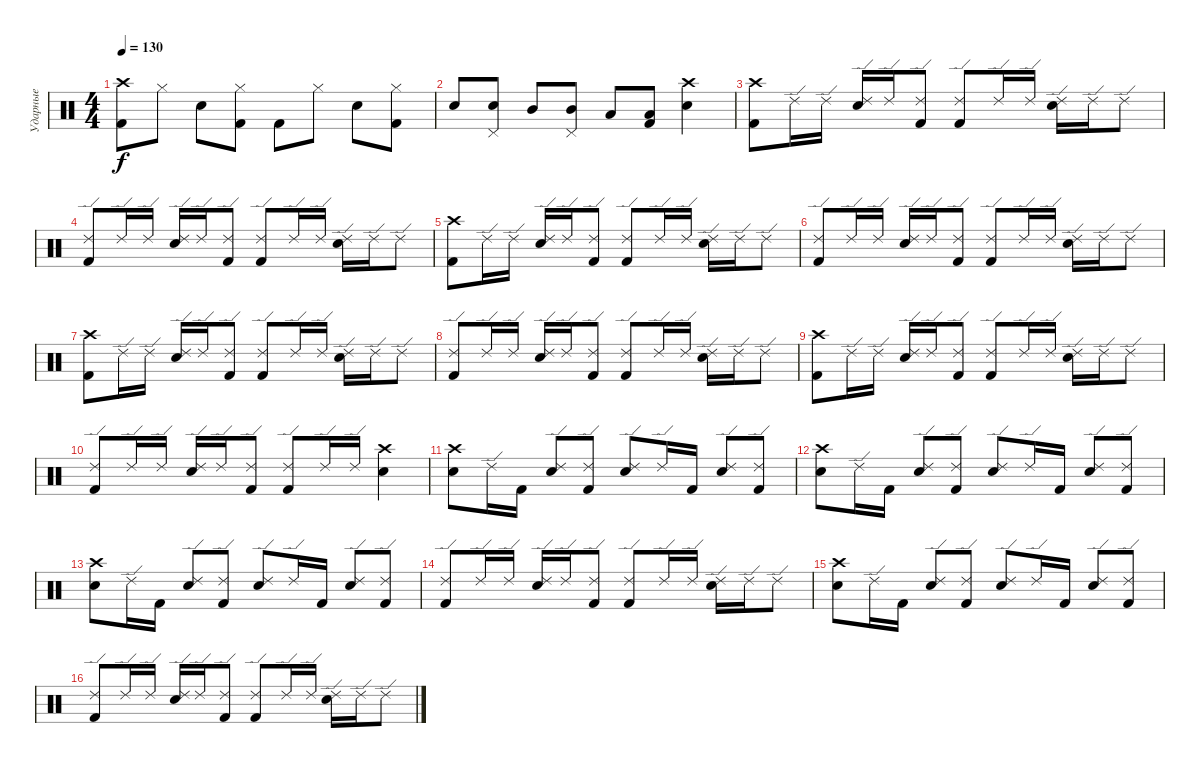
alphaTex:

\track ("Ударные" "Ударные") {instrument percussion}
\staff {score}
\articulation defaults
\ts (4 4)
\tempo 130
\clef neutral
\ks c
("Kick (hit) 2" "Crash high (hit)").8{dy f} "Hi-Hat (closed)".8 "Electric Snare (hit)".8 ("Kick (hit) 2" "Hi-Hat (closed)").8 "Kick (hit) 2".8 "Hi-Hat (closed)".8 "Electric Snare (hit)".8 ("Kick (hit) 2" "Hi-Hat (closed)").8 |
"Electric Snare (hit)".8 ("Electric Snare (hit)" "Pedal Hi-Hat (hit)").8 "Mid Tom (hit)".8 ("Mid Tom (hit)" "Pedal Hi-Hat (hit)").8 "Low Tom (hit)".8 ("Low Tom (hit)" "Kick (hit) 2").8 ("Electric Snare (hit)" "Crash high (hit)").4 |
("Kick (hit) 2" "Crash high (hit)").8 "Ride (edge) 2".16 "Ride (edge) 2".16 ("Electric Snare (hit)" "Ride (edge) 2").16 "Ride (edge) 2".16 ("Kick (hit) 2" "Ride (edge) 2").8 ("Kick (hit) 2" "Ride (edge) 2").8 "Ride (edge) 2".16 "Ride (edge) 2".16 ("Electric Snare (hit)" "Ride (edge) 2").16 "Ride (edge) 2".16 "Ride (edge) 2".8 |
("Kick (hit) 2" "Ride (edge) 2").8 "Ride (edge) 2".16 "Ride (edge) 2".16 ("Electric Snare (hit)" "Ride (edge) 2").16 "Ride (edge) 2".16 ("Kick (hit) 2" "Ride (edge) 2").8 ("Kick (hit) 2" "Ride (edge) 2").8 "Ride (edge) 2".16 "Ride (edge) 2".16 ("Electric Snare (hit)" "Ride (edge) 2").16 "Ride (edge) 2".16 "Ride (edge) 2".8 |
("Kick (hit) 2" "Crash high (hit)").8 "Ride (edge) 2".16 "Ride (edge) 2".16 ("Electric Snare (hit)" "Ride (edge) 2").16 "Ride (edge) 2".16 ("Kick (hit) 2" "Ride (edge) 2").8 ("Kick (hit) 2" "Ride (edge) 2").8 "Ride (edge) 2".16 "Ride (edge) 2".16 ("Electric Snare (hit)" "Ride (edge) 2").16 "Ride (edge) 2".16 "Ride (edge) 2".8 |
("Kick (hit) 2" "Ride (edge) 2").8 "Ride (edge) 2".16 "Ride (edge) 2".16 ("Electric Snare (hit)" "Ride (edge) 2").16 "Ride (edge) 2".16 ("Kick (hit) 2" "Ride (edge) 2").8 ("Kick (hit) 2" "Ride (edge) 2").8 "Ride (edge) 2".16 "Ride (edge) 2".16 ("Electric Snare (hit)" "Ride (edge) 2").16 "Ride (edge) 2".16 "Ride (edge) 2".8 |
("Kick (hit) 2" "Crash high (hit)").8 "Ride (edge) 2".16 "Ride (edge) 2".16 ("Electric Snare (hit)" "Ride (edge) 2").16 "Ride (edge) 2".16 ("Kick (hit) 2" "Ride (edge) 2").8 ("Kick (hit) 2" "Ride (edge) 2").8 "Ride (edge) 2".16 "Ride (edge) 2".16 ("Electric Snare (hit)" "Ride (edge) 2").16 "Ride (edge) 2".16 "Ride (edge) 2".8 |
("Kick (hit) 2" "Ride (edge) 2").8 "Ride (edge) 2".16 "Ride (edge) 2".16 ("Electric Snare (hit)" "Ride (edge) 2").16 "Ride (edge) 2".16 ("Kick (hit) 2" "Ride (edge) 2").8 ("Kick (hit) 2" "Ride (edge) 2").8 "Ride (edge) 2".16 "Ride (edge) 2".16 ("Electric Snare (hit)" "Ride (edge) 2").16 "Ride (edge) 2".16 "Ride (edge) 2".8 |
("Kick (hit) 2" "Crash high (hit)").8 "Ride (edge) 2".16 "Ride (edge) 2".16 ("Electric Snare (hit)" "Ride (edge) 2").16 "Ride (edge) 2".16 ("Kick (hit) 2" "Ride (edge) 2").8 ("Kick (hit) 2" "Ride (edge) 2").8 "Ride (edge) 2".16 "Ride (edge) 2".16 ("Electric Snare (hit)" "Ride (edge) 2").16 "Ride (edge) 2".16 "Ride (edge) 2".8 |
("Kick (hit) 2" "Ride (edge) 2").8 "Ride (edge) 2".16 "Ride (edge) 2".16 ("Electric Snare (hit)" "Ride (edge) 2").16 "Ride (edge) 2".16 ("Kick (hit) 2" "Ride (edge) 2").8 ("Kick (hit) 2" "Ride (edge) 2").8 "Ride (edge) 2".16 "Ride (edge) 2".16 ("Electric Snare (hit)" "Crash high (hit)").4 |
("Electric Snare (hit)" "Crash high (hit)").8 "Ride (edge) 2".16 "Kick (hit) 2".16 ("Electric Snare (hit)" "Ride (edge) 2").8 ("Kick (hit) 2" "Ride (edge) 2").8 ("Electric Snare (hit)" "Ride (edge) 2").8 "Ride (edge) 2".16 "Kick (hit) 2".16 ("Electric Snare (hit)" "Ride (edge) 2").8 ("Kick (hit) 2" "Ride (edge) 2").8 |
("Electric Snare (hit)" "Crash high (hit)").8 "Ride (edge) 2".16 "Kick (hit) 2".16 ("Electric Snare (hit)" "Ride (edge) 2").8 ("Kick (hit) 2" "Ride (edge) 2").8 ("Electric Snare (hit)" "Ride (edge) 2").8 "Ride (edge) 2".16 "Kick (hit) 2".16 ("Electric Snare (hit)" "Ride (edge) 2").8 ("Kick (hit) 2" "Ride (edge) 2").8 |
("Electric Snare (hit)" "Crash high (hit)").8 "Ride (edge) 2".16 "Kick (hit) 2".16 ("Electric Snare (hit)" "Ride (edge) 2").8 ("Kick (hit) 2" "Ride (edge) 2").8 ("Electric Snare (hit)" "Ride (edge) 2").8 "Ride (edge) 2".16 "Kick (hit) 2".16 ("Electric Snare (hit)" "Ride (edge) 2").8 ("Kick (hit) 2" "Ride (edge) 2").8 |
("Kick (hit) 2" "Ride (edge) 2").8 "Ride (edge) 2".16 "Ride (edge) 2".16 ("Electric Snare (hit)" "Ride (edge) 2").16 "Ride (edge) 2".16 ("Kick (hit) 2" "Ride (edge) 2").8 ("Kick (hit) 2" "Ride (edge) 2").8 "Ride (edge) 2".16 "Ride (edge) 2".16 ("Electric Snare (hit)" "Ride (edge) 2").16 "Ride (edge) 2".16 "Ride (edge) 2".8 |
("Electric Snare (hit)" "Crash high (hit)").8 "Ride (edge) 2".16 "Kick (hit) 2".16 ("Electric Snare (hit)" "Ride (edge) 2").8 ("Kick (hit) 2" "Ride (edge) 2").8 ("Electric Snare (hit)" "Ride (edge) 2").8 "Ride (edge) 2".16 "Kick (hit) 2".16 ("Electric Snare (hit)" "Ride (edge) 2").8 ("Kick (hit) 2" "Ride (edge) 2").8 |
("Kick (hit) 2" "Ride (edge) 2").8 "Ride (edge) 2".16 "Ride (edge) 2".16 ("Electric Snare (hit)" "Ride (edge) 2").16 "Ride (edge) 2".16 ("Kick (hit) 2" "Ride (edge) 2").8 ("Kick (hit) 2" "Ride (edge) 2").8 "Ride (edge) 2".16 "Ride (edge) 2".16 ("Electric Snare (hit)" "Ride (edge) 2").16 "Ride (edge) 2".16 "Ride (edge) 2".8
